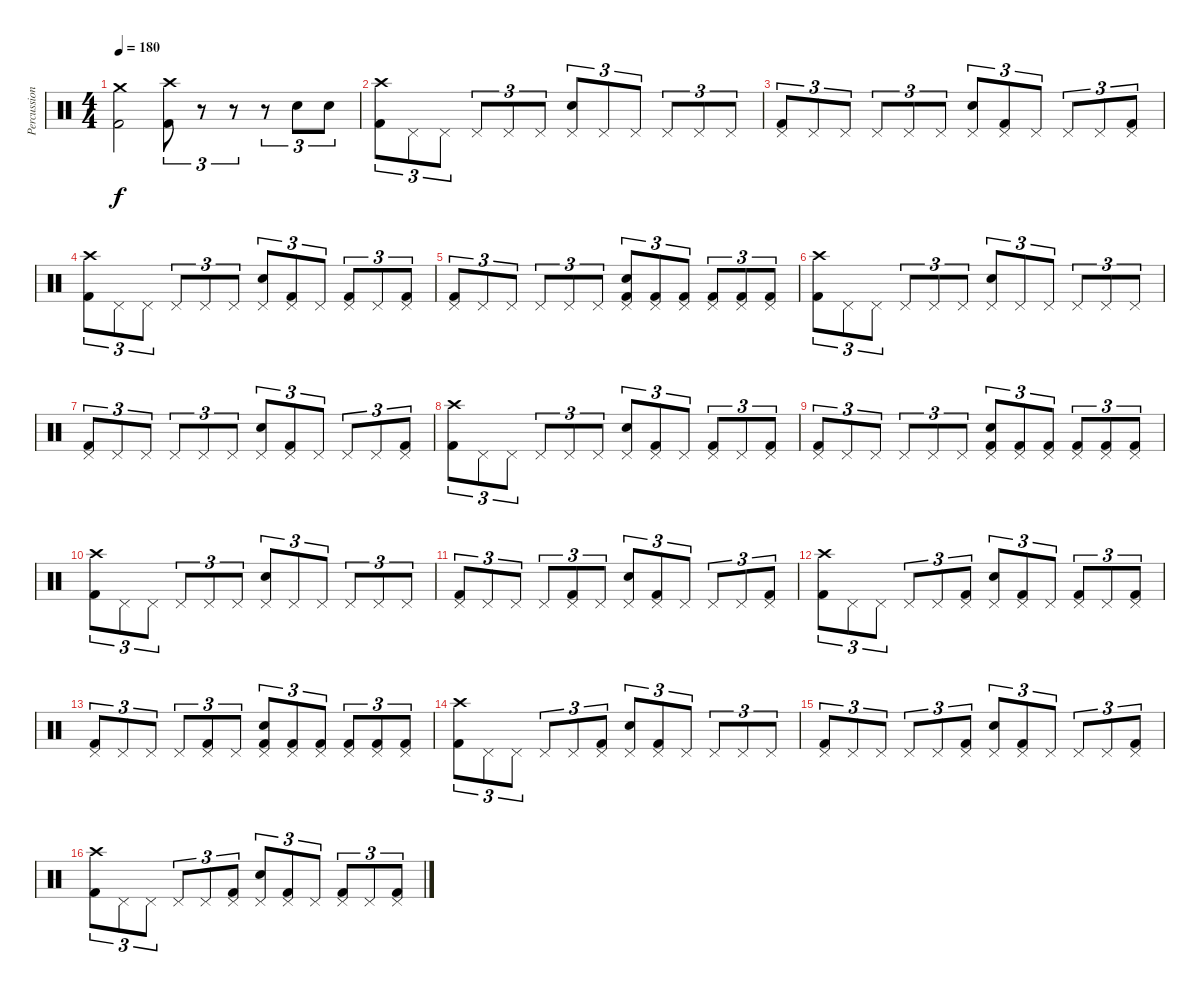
\track ("Percussion" "Percussion") {instrument percussion}
\staff {score}
\articulation defaults
\ts (4 4)
\tempo 180
\clef neutral
\ks c
("Crash medium (hit)" "Kick (hit) 2").2{dy f} ("Crash high (hit)" "Kick (hit) 2").8{tu (3 2)} r.8{tu (3 2)} r.8{tu (3 2)} r.8{tu (3 2)} "Snare (hit) 2".8{tu (3 2)} "Snare (hit) 2".8{tu (3 2)} |
("Crash high (hit)" "Kick (hit) 2").8{tu (3 2)} "Pedal Hi-Hat (hit)".8{tu (3 2)} "Pedal Hi-Hat (hit)".8{tu (3 2)} "Pedal Hi-Hat (hit)".8{tu (3 2)} "Pedal Hi-Hat (hit)".8{tu (3 2)} "Pedal Hi-Hat (hit)".8{tu (3 2)} ("Pedal Hi-Hat (hit)" "Snare (hit) 2").8{tu (3 2)} "Pedal Hi-Hat (hit)".8{tu (3 2)} "Pedal Hi-Hat (hit)".8{tu (3 2)} "Pedal Hi-Hat (hit)".8{tu (3 2)} "Pedal Hi-Hat (hit)".8{tu (3 2)} "Pedal Hi-Hat (hit)".8{tu (3 2)} |
("Pedal Hi-Hat (hit)" "Kick (hit) 2").8{tu (3 2)} "Pedal Hi-Hat (hit)".8{tu (3 2)} "Pedal Hi-Hat (hit)".8{tu (3 2)} "Pedal Hi-Hat (hit)".8{tu (3 2)} "Pedal Hi-Hat (hit)".8{tu (3 2)} "Pedal Hi-Hat (hit)".8{tu (3 2)} ("Pedal Hi-Hat (hit)" "Snare (hit) 2").8{tu (3 2)} ("Pedal Hi-Hat (hit)" "Kick (hit) 2").8{tu (3 2)} "Pedal Hi-Hat (hit)".8{tu (3 2)} "Pedal Hi-Hat (hit)".8{tu (3 2)} "Pedal Hi-Hat (hit)".8{tu (3 2)} ("Pedal Hi-Hat (hit)" "Kick (hit) 2").8{tu (3 2)} |
("Crash high (hit)" "Kick (hit) 2").8{tu (3 2)} "Pedal Hi-Hat (hit)".8{tu (3 2)} "Pedal Hi-Hat (hit)".8{tu (3 2)} "Pedal Hi-Hat (hit)".8{tu (3 2)} "Pedal Hi-Hat (hit)".8{tu (3 2)} "Pedal Hi-Hat (hit)".8{tu (3 2)} ("Pedal Hi-Hat (hit)" "Snare (hit) 2").8{tu (3 2)} ("Pedal Hi-Hat (hit)" "Kick (hit) 2").8{tu (3 2)} "Pedal Hi-Hat (hit)".8{tu (3 2)} ("Pedal Hi-Hat (hit)" "Kick (hit) 2").8{tu (3 2)} "Pedal Hi-Hat (hit)".8{tu (3 2)} ("Pedal Hi-Hat (hit)" "Kick (hit) 2").8{tu (3 2)} |
("Pedal Hi-Hat (hit)" "Kick (hit) 2").8{tu (3 2)} "Pedal Hi-Hat (hit)".8{tu (3 2)} "Pedal Hi-Hat (hit)".8{tu (3 2)} "Pedal Hi-Hat (hit)".8{tu (3 2)} "Pedal Hi-Hat (hit)".8{tu (3 2)} "Pedal Hi-Hat (hit)".8{tu (3 2)} ("Pedal Hi-Hat (hit)" "Snare (hit) 2" "Kick (hit) 2").8{tu (3 2)} ("Pedal Hi-Hat (hit)" "Kick (hit) 2").8{tu (3 2)} ("Pedal Hi-Hat (hit)" "Kick (hit) 2").8{tu (3 2)} ("Pedal Hi-Hat (hit)" "Kick (hit) 2").8{tu (3 2)} ("Pedal Hi-Hat (hit)" "Kick (hit) 2").8{tu (3 2)} ("Pedal Hi-Hat (hit)" "Kick (hit) 2").8{tu (3 2)} |
("Crash high (hit)" "Kick (hit) 2").8{tu (3 2)} "Pedal Hi-Hat (hit)".8{tu (3 2)} "Pedal Hi-Hat (hit)".8{tu (3 2)} "Pedal Hi-Hat (hit)".8{tu (3 2)} "Pedal Hi-Hat (hit)".8{tu (3 2)} "Pedal Hi-Hat (hit)".8{tu (3 2)} ("Pedal Hi-Hat (hit)" "Snare (hit) 2").8{tu (3 2)} "Pedal Hi-Hat (hit)".8{tu (3 2)} "Pedal Hi-Hat (hit)".8{tu (3 2)} "Pedal Hi-Hat (hit)".8{tu (3 2)} "Pedal Hi-Hat (hit)".8{tu (3 2)} "Pedal Hi-Hat (hit)".8{tu (3 2)} |
("Pedal Hi-Hat (hit)" "Kick (hit) 2").8{tu (3 2)} "Pedal Hi-Hat (hit)".8{tu (3 2)} "Pedal Hi-Hat (hit)".8{tu (3 2)} "Pedal Hi-Hat (hit)".8{tu (3 2)} "Pedal Hi-Hat (hit)".8{tu (3 2)} "Pedal Hi-Hat (hit)".8{tu (3 2)} ("Pedal Hi-Hat (hit)" "Snare (hit) 2").8{tu (3 2)} ("Pedal Hi-Hat (hit)" "Kick (hit) 2").8{tu (3 2)} "Pedal Hi-Hat (hit)".8{tu (3 2)} "Pedal Hi-Hat (hit)".8{tu (3 2)} "Pedal Hi-Hat (hit)".8{tu (3 2)} ("Pedal Hi-Hat (hit)" "Kick (hit) 2").8{tu (3 2)} |
("Crash high (hit)" "Kick (hit) 2").8{tu (3 2)} "Pedal Hi-Hat (hit)".8{tu (3 2)} "Pedal Hi-Hat (hit)".8{tu (3 2)} "Pedal Hi-Hat (hit)".8{tu (3 2)} "Pedal Hi-Hat (hit)".8{tu (3 2)} "Pedal Hi-Hat (hit)".8{tu (3 2)} ("Pedal Hi-Hat (hit)" "Snare (hit) 2").8{tu (3 2)} ("Pedal Hi-Hat (hit)" "Kick (hit) 2").8{tu (3 2)} "Pedal Hi-Hat (hit)".8{tu (3 2)} ("Pedal Hi-Hat (hit)" "Kick (hit) 2").8{tu (3 2)} "Pedal Hi-Hat (hit)".8{tu (3 2)} ("Pedal Hi-Hat (hit)" "Kick (hit) 2").8{tu (3 2)} |
("Pedal Hi-Hat (hit)" "Kick (hit) 2").8{tu (3 2)} "Pedal Hi-Hat (hit)".8{tu (3 2)} "Pedal Hi-Hat (hit)".8{tu (3 2)} "Pedal Hi-Hat (hit)".8{tu (3 2)} "Pedal Hi-Hat (hit)".8{tu (3 2)} "Pedal Hi-Hat (hit)".8{tu (3 2)} ("Pedal Hi-Hat (hit)" "Snare (hit) 2" "Kick (hit) 2").8{tu (3 2)} ("Pedal Hi-Hat (hit)" "Kick (hit) 2").8{tu (3 2)} ("Pedal Hi-Hat (hit)" "Kick (hit) 2").8{tu (3 2)} ("Pedal Hi-Hat (hit)" "Kick (hit) 2").8{tu (3 2)} ("Pedal Hi-Hat (hit)" "Kick (hit) 2").8{tu (3 2)} ("Pedal Hi-Hat (hit)" "Kick (hit) 2").8{tu (3 2)} |
("Crash high (hit)" "Kick (hit) 2").8{tu (3 2)} "Pedal Hi-Hat (hit)".8{tu (3 2)} "Pedal Hi-Hat (hit)".8{tu (3 2)} "Pedal Hi-Hat (hit)".8{tu (3 2)} "Pedal Hi-Hat (hit)".8{tu (3 2)} "Pedal Hi-Hat (hit)".8{tu (3 2)} ("Pedal Hi-Hat (hit)" "Snare (hit) 2").8{tu (3 2)} "Pedal Hi-Hat (hit)".8{tu (3 2)} "Pedal Hi-Hat (hit)".8{tu (3 2)} "Pedal Hi-Hat (hit)".8{tu (3 2)} "Pedal Hi-Hat (hit)".8{tu (3 2)} "Pedal Hi-Hat (hit)".8{tu (3 2)} |
("Pedal Hi-Hat (hit)" "Kick (hit) 2").8{tu (3 2)} "Pedal Hi-Hat (hit)".8{tu (3 2)} "Pedal Hi-Hat (hit)".8{tu (3 2)} "Pedal Hi-Hat (hit)".8{tu (3 2)} ("Pedal Hi-Hat (hit)" "Kick (hit) 2").8{tu (3 2)} "Pedal Hi-Hat (hit)".8{tu (3 2)} ("Pedal Hi-Hat (hit)" "Snare (hit) 2").8{tu (3 2)} ("Pedal Hi-Hat (hit)" "Kick (hit) 2").8{tu (3 2)} "Pedal Hi-Hat (hit)".8{tu (3 2)} "Pedal Hi-Hat (hit)".8{tu (3 2)} "Pedal Hi-Hat (hit)".8{tu (3 2)} ("Pedal Hi-Hat (hit)" "Kick (hit) 2").8{tu (3 2)} |
("Crash high (hit)" "Kick (hit) 2").8{tu (3 2)} "Pedal Hi-Hat (hit)".8{tu (3 2)} "Pedal Hi-Hat (hit)".8{tu (3 2)} "Pedal Hi-Hat (hit)".8{tu (3 2)} "Pedal Hi-Hat (hit)".8{tu (3 2)} ("Pedal Hi-Hat (hit)" "Kick (hit) 2").8{tu (3 2)} ("Pedal Hi-Hat (hit)" "Snare (hit) 2").8{tu (3 2)} ("Pedal Hi-Hat (hit)" "Kick (hit) 2").8{tu (3 2)} "Pedal Hi-Hat (hit)".8{tu (3 2)} ("Pedal Hi-Hat (hit)" "Kick (hit) 2").8{tu (3 2)} "Pedal Hi-Hat (hit)".8{tu (3 2)} ("Pedal Hi-Hat (hit)" "Kick (hit) 2").8{tu (3 2)} |
("Pedal Hi-Hat (hit)" "Kick (hit) 2").8{tu (3 2)} "Pedal Hi-Hat (hit)".8{tu (3 2)} "Pedal Hi-Hat (hit)".8{tu (3 2)} "Pedal Hi-Hat (hit)".8{tu (3 2)} ("Pedal Hi-Hat (hit)" "Kick (hit) 2").8{tu (3 2)} "Pedal Hi-Hat (hit)".8{tu (3 2)} ("Pedal Hi-Hat (hit)" "Snare (hit) 2" "Kick (hit) 2").8{tu (3 2)} ("Pedal Hi-Hat (hit)" "Kick (hit) 2").8{tu (3 2)} ("Pedal Hi-Hat (hit)" "Kick (hit) 2").8{tu (3 2)} ("Pedal Hi-Hat (hit)" "Kick (hit) 2").8{tu (3 2)} ("Pedal Hi-Hat (hit)" "Kick (hit) 2").8{tu (3 2)} ("Pedal Hi-Hat (hit)" "Kick (hit) 2").8{tu (3 2)} |
("Crash high (hit)" "Kick (hit) 2").8{tu (3 2)} "Pedal Hi-Hat (hit)".8{tu (3 2)} "Pedal Hi-Hat (hit)".8{tu (3 2)} "Pedal Hi-Hat (hit)".8{tu (3 2)} "Pedal Hi-Hat (hit)".8{tu (3 2)} ("Pedal Hi-Hat (hit)" "Kick (hit) 2").8{tu (3 2)} ("Pedal Hi-Hat (hit)" "Snare (hit) 2").8{tu (3 2)} ("Pedal Hi-Hat (hit)" "Kick (hit) 2").8{tu (3 2)} "Pedal Hi-Hat (hit)".8{tu (3 2)} "Pedal Hi-Hat (hit)".8{tu (3 2)} "Pedal Hi-Hat (hit)".8{tu (3 2)} "Pedal Hi-Hat (hit)".8{tu (3 2)} |
("Pedal Hi-Hat (hit)" "Kick (hit) 2").8{tu (3 2)} "Pedal Hi-Hat (hit)".8{tu (3 2)} "Pedal Hi-Hat (hit)".8{tu (3 2)} "Pedal Hi-Hat (hit)".8{tu (3 2)} "Pedal Hi-Hat (hit)".8{tu (3 2)} ("Pedal Hi-Hat (hit)" "Kick (hit) 2").8{tu (3 2)} ("Pedal Hi-Hat (hit)" "Snare (hit) 2").8{tu (3 2)} ("Pedal Hi-Hat (hit)" "Kick (hit) 2").8{tu (3 2)} "Pedal Hi-Hat (hit)".8{tu (3 2)} "Pedal Hi-Hat (hit)".8{tu (3 2)} "Pedal Hi-Hat (hit)".8{tu (3 2)} ("Pedal Hi-Hat (hit)" "Kick (hit) 2").8{tu (3 2)} |
("Crash high (hit)" "Kick (hit) 2").8{tu (3 2)} "Pedal Hi-Hat (hit)".8{tu (3 2)} "Pedal Hi-Hat (hit)".8{tu (3 2)} "Pedal Hi-Hat (hit)".8{tu (3 2)} "Pedal Hi-Hat (hit)".8{tu (3 2)} ("Pedal Hi-Hat (hit)" "Kick (hit) 2").8{tu (3 2)} ("Pedal Hi-Hat (hit)" "Snare (hit) 2").8{tu (3 2)} ("Pedal Hi-Hat (hit)" "Kick (hit) 2").8{tu (3 2)} "Pedal Hi-Hat (hit)".8{tu (3 2)} ("Pedal Hi-Hat (hit)" "Kick (hit) 2").8{tu (3 2)} "Pedal Hi-Hat (hit)".8{tu (3 2)} ("Pedal Hi-Hat (hit)" "Kick (hit) 2").8{tu (3 2)}
